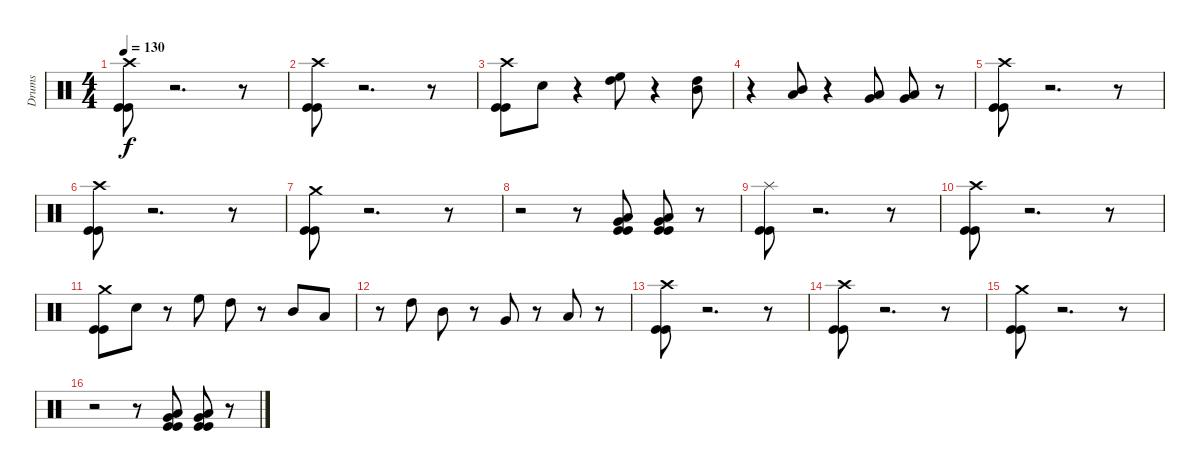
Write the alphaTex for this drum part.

\track ("Drums" "Drums") {instrument percussion}
\staff {score}
\articulation defaults
\ts (4 4)
\tempo 130
\clef neutral
\ks c
("Kick (hit)" "Kick (hit)" "Crash high (hit)").8{dy f} r.2{d} r.8 |
("Kick (hit)" "Kick (hit)" "Crash high (hit)").8 r.2{d} r.8 |
("Kick (hit)" "Kick (hit)" "Crash high (hit)").8 "Snare (hit) 2".8 r.4 ("High Floor Tom (hit)" "High Tom (hit)").8 r.4 ("High Tom (hit)" "Mid Tom (hit)").8 |
r.4 ("Mid Tom (hit)" "Low Tom (hit)").8 r.4 ("Low Tom (hit)" "Very Low Tom (hit)").8 ("Low Tom (hit)" "Very Low Tom (hit)").8 r.8 |
("Kick (hit)" "Kick (hit)" "Crash high (hit)").8 r.2{d} r.8 |
("Kick (hit)" "Kick (hit)" "Crash high (hit)").8 r.2{d} r.8 |
("Kick (hit)" "Kick (hit)" "Crash medium (hit)").8 r.2{d} r.8 |
r.2 r.8 ("Kick (hit)" "Kick (hit)" "Low Floor Tom (hit)" "Very Low Tom (hit)").8 ("Kick (hit)" "Kick (hit)" "Low Floor Tom (hit)" "Very Low Tom (hit)").8 r.8 |
("Kick (hit)" "Kick (hit)" "Splash (hit)").8 r.2{d} r.8 |
("Kick (hit)" "Kick (hit)" "Crash high (hit)").8 r.2{d} r.8 |
("Kick (hit)" "Kick (hit)" "Crash medium (hit)").8 "Snare (hit) 2".8 r.8 "High Floor Tom (hit)".8 "High Tom (hit)".8 r.8 "Mid Tom (hit)".8 "Low Tom (hit)".8 |
r.8 "High Tom (hit)".8 "Mid Tom (hit)".8 r.8 "Very Low Tom (hit)".8 r.8 "Low Floor Tom (hit)".8 r.8 |
("Kick (hit)" "Kick (hit)" "Crash high (hit)").8 r.2{d} r.8 |
("Kick (hit)" "Kick (hit)" "Crash high (hit)").8 r.2{d} r.8 |
("Kick (hit)" "Kick (hit)" "Crash medium (hit)").8 r.2{d} r.8 |
r.2 r.8 ("Kick (hit)" "Kick (hit)" "Low Floor Tom (hit)" "Very Low Tom (hit)").8 ("Kick (hit)" "Kick (hit)" "Low Floor Tom (hit)" "Very Low Tom (hit)").8 r.8
